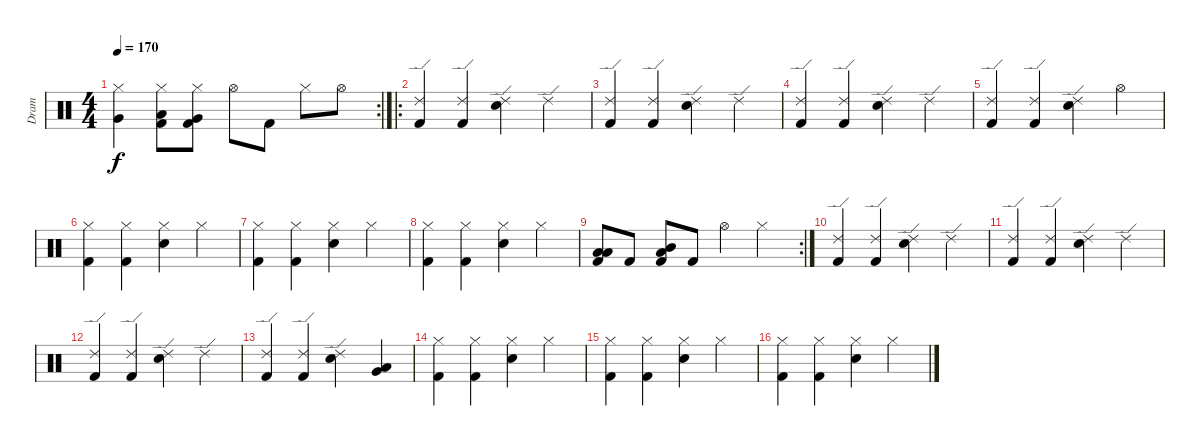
\track ("Dram" "Dram") {instrument percussion}
\staff {score}
\articulation defaults
\rc 2
\ts (4 4)
\tempo 170
\clef neutral
\ks c
("Hi-Hat (closed)" "Very Low Tom (hit)").4{dy f} ("Hi-Hat (closed)" "Low Tom (hit)" "Kick (hit) 2").8 ("Hi-Hat (closed)" "Very Low Tom (hit)" "Kick (hit) 2").8 "Hi-Hat (open)".8 "Kick (hit) 2".8 "Hi-Hat (closed)".8 "Hi-Hat (open)".8 |
\ro
("Ride (edge) 2" "Kick (hit) 2").4 ("Ride (edge) 2" "Kick (hit) 2").4 ("Ride (edge) 2" "Electric Snare (hit)").4 "Ride (edge) 2".4 |
("Ride (edge) 2" "Kick (hit) 2").4 ("Ride (edge) 2" "Kick (hit) 2").4 ("Ride (edge) 2" "Electric Snare (hit)").4 "Ride (edge) 2".4 |
("Ride (edge) 2" "Kick (hit) 2").4 ("Ride (edge) 2" "Kick (hit) 2").4 ("Ride (edge) 2" "Electric Snare (hit)").4 "Ride (edge) 2".4 |
("Ride (edge) 2" "Kick (hit) 2").4 ("Ride (edge) 2" "Kick (hit) 2").4 ("Ride (edge) 2" "Electric Snare (hit)").4 "Hi-Hat (open)".4 |
("Hi-Hat (closed)" "Kick (hit) 2").4 ("Hi-Hat (closed)" "Kick (hit) 2").4 ("Hi-Hat (closed)" "Electric Snare (hit)").4 "Hi-Hat (closed)".4 |
("Hi-Hat (closed)" "Kick (hit) 2").4 ("Hi-Hat (closed)" "Kick (hit) 2").4 ("Hi-Hat (closed)" "Electric Snare (hit)").4 "Hi-Hat (closed)".4 |
("Hi-Hat (closed)" "Kick (hit) 2").4 ("Hi-Hat (closed)" "Kick (hit) 2").4 ("Hi-Hat (closed)" "Electric Snare (hit)").4 "Hi-Hat (closed)".4 |
\rc 2
("Low Floor Tom (hit)" "Low Tom (hit)" "Kick (hit) 2").8 "Kick (hit) 2".8 ("Low Tom (hit)" "Mid Tom (hit)" "Kick (hit) 2").8 "Kick (hit) 2".8 "Hi-Hat (open)".4 "Hi-Hat (closed)".4 |
("Ride (edge) 2" "Kick (hit) 2").4 ("Ride (edge) 2" "Kick (hit) 2").4 ("Ride (edge) 2" "Electric Snare (hit)").4 "Ride (edge) 2".4 |
("Ride (edge) 2" "Kick (hit) 2").4 ("Ride (edge) 2" "Kick (hit) 2").4 ("Ride (edge) 2" "Electric Snare (hit)").4 "Ride (edge) 2".4 |
("Ride (edge) 2" "Kick (hit) 2").4 ("Ride (edge) 2" "Kick (hit) 2").4 ("Ride (edge) 2" "Electric Snare (hit)").4 "Ride (edge) 2".4 |
("Ride (edge) 2" "Kick (hit) 2").4 ("Ride (edge) 2" "Kick (hit) 2").4 ("Ride (edge) 2" "Electric Snare (hit)").4 ("Low Tom (hit)" "Very Low Tom (hit)").4 |
("Hi-Hat (closed)" "Kick (hit) 2").4 ("Hi-Hat (closed)" "Kick (hit) 2").4 ("Hi-Hat (closed)" "Electric Snare (hit)").4 "Hi-Hat (closed)".4 |
("Hi-Hat (closed)" "Kick (hit) 2").4 ("Hi-Hat (closed)" "Kick (hit) 2").4 ("Hi-Hat (closed)" "Electric Snare (hit)").4 "Hi-Hat (closed)".4 |
("Hi-Hat (closed)" "Kick (hit) 2").4 ("Hi-Hat (closed)" "Kick (hit) 2").4 ("Hi-Hat (closed)" "Electric Snare (hit)").4 "Hi-Hat (closed)".4
